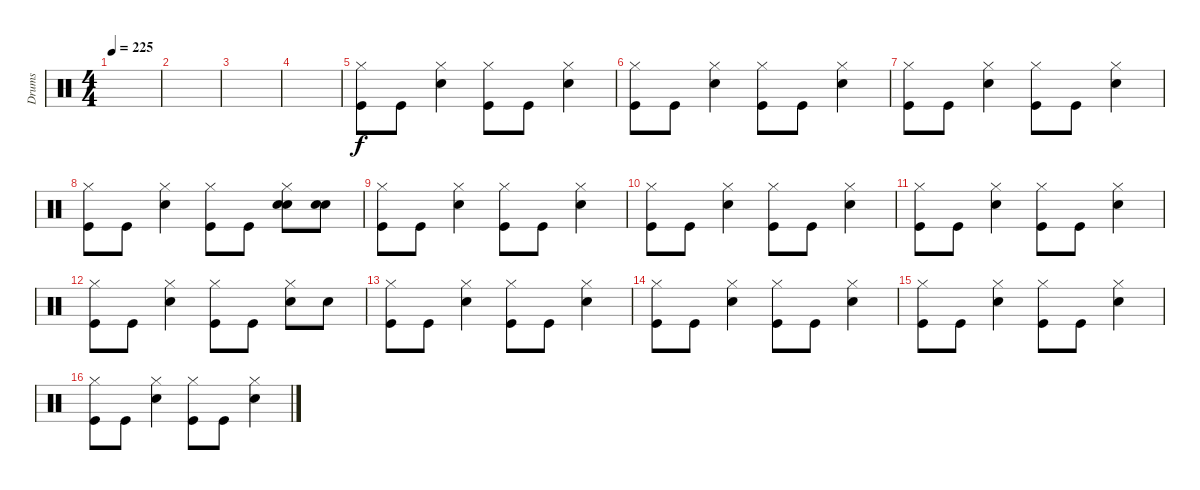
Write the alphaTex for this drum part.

\track ("Drums" "Drums") {instrument percussion}
\staff {score}
\articulation defaults
\ts (4 4)
\tempo 225
\clef neutral
\ks c
|
|
|
|
("Kick (hit)" "Hi-Hat (closed)").8 "Kick (hit)".8 ("Electric Snare (hit)" "Hi-Hat (closed)").4 ("Kick (hit)" "Hi-Hat (closed)").8 "Kick (hit)".8 ("Electric Snare (hit)" "Hi-Hat (closed)").4 |
("Kick (hit)" "Hi-Hat (closed)").8 "Kick (hit)".8 ("Electric Snare (hit)" "Hi-Hat (closed)").4 ("Kick (hit)" "Hi-Hat (closed)").8 "Kick (hit)".8 ("Electric Snare (hit)" "Hi-Hat (closed)").4 |
("Kick (hit)" "Hi-Hat (closed)").8 "Kick (hit)".8 ("Electric Snare (hit)" "Hi-Hat (closed)").4 ("Kick (hit)" "Hi-Hat (closed)").8 "Kick (hit)".8 ("Electric Snare (hit)" "Hi-Hat (closed)").4 |
("Kick (hit)" "Hi-Hat (closed)").8 "Kick (hit)".8 ("Electric Snare (hit)" "Hi-Hat (closed)").4 ("Kick (hit)" "Hi-Hat (closed)").8 "Kick (hit)".8 ("Electric Snare (hit)" "Electric Snare (hit)" "Hi-Hat (closed)").8 ("Electric Snare (hit)" "Electric Snare (hit)").8 |
("Kick (hit)" "Hi-Hat (closed)").8 "Kick (hit)".8 ("Electric Snare (hit)" "Hi-Hat (closed)").4 ("Kick (hit)" "Hi-Hat (closed)").8 "Kick (hit)".8 ("Electric Snare (hit)" "Hi-Hat (closed)").4 |
("Kick (hit)" "Hi-Hat (closed)").8 "Kick (hit)".8 ("Electric Snare (hit)" "Hi-Hat (closed)").4 ("Kick (hit)" "Hi-Hat (closed)").8 "Kick (hit)".8 ("Electric Snare (hit)" "Hi-Hat (closed)").4 |
("Kick (hit)" "Hi-Hat (closed)").8 "Kick (hit)".8 ("Electric Snare (hit)" "Hi-Hat (closed)").4 ("Kick (hit)" "Hi-Hat (closed)").8 "Kick (hit)".8 ("Electric Snare (hit)" "Hi-Hat (closed)").4 |
("Kick (hit)" "Hi-Hat (closed)").8 "Kick (hit)".8 ("Electric Snare (hit)" "Hi-Hat (closed)").4 ("Kick (hit)" "Hi-Hat (closed)").8 "Kick (hit)".8 ("Electric Snare (hit)" "Hi-Hat (closed)").8 "Electric Snare (hit)".8 |
("Kick (hit)" "Hi-Hat (closed)").8 "Kick (hit)".8 ("Electric Snare (hit)" "Hi-Hat (closed)").4 ("Kick (hit)" "Hi-Hat (closed)").8 "Kick (hit)".8 ("Electric Snare (hit)" "Hi-Hat (closed)").4 |
("Kick (hit)" "Hi-Hat (closed)").8 "Kick (hit)".8 ("Electric Snare (hit)" "Hi-Hat (closed)").4 ("Kick (hit)" "Hi-Hat (closed)").8 "Kick (hit)".8 ("Electric Snare (hit)" "Hi-Hat (closed)").4 |
("Kick (hit)" "Hi-Hat (closed)").8 "Kick (hit)".8 ("Electric Snare (hit)" "Hi-Hat (closed)").4 ("Kick (hit)" "Hi-Hat (closed)").8 "Kick (hit)".8 ("Electric Snare (hit)" "Hi-Hat (closed)").4 |
("Kick (hit)" "Hi-Hat (closed)").8 "Kick (hit)".8 ("Electric Snare (hit)" "Hi-Hat (closed)").4 ("Kick (hit)" "Hi-Hat (closed)").8 "Kick (hit)".8 ("Electric Snare (hit)" "Hi-Hat (closed)").4
